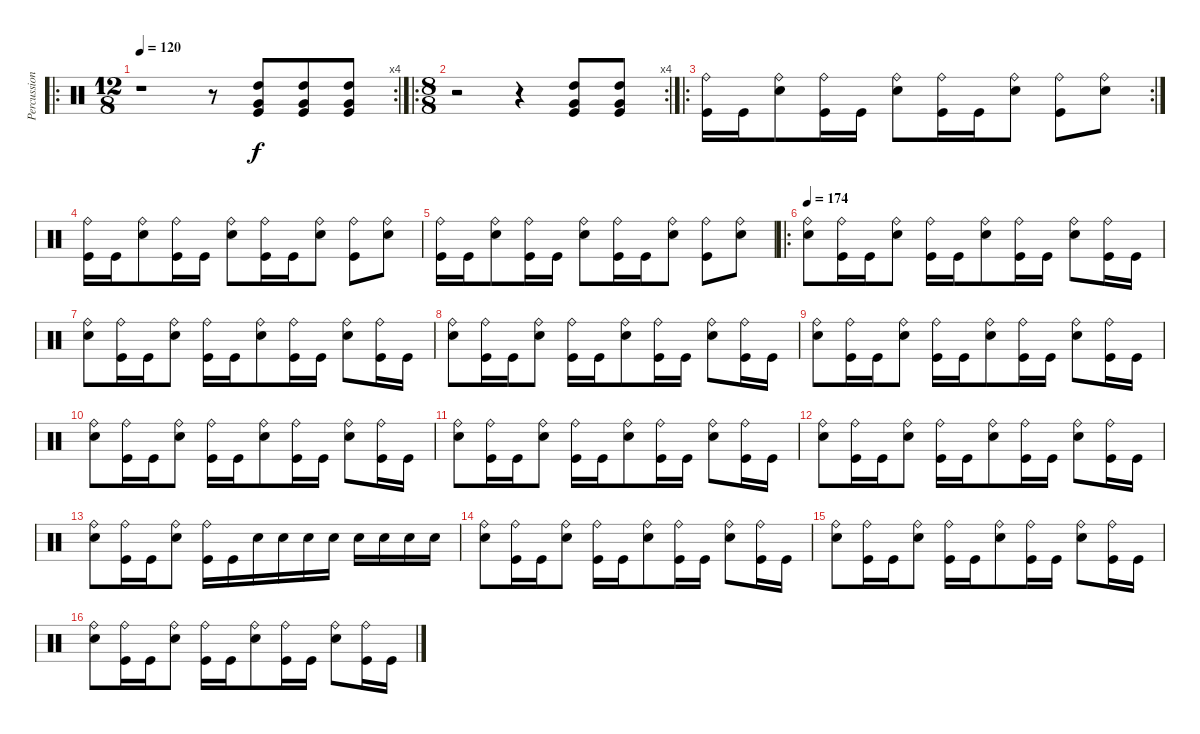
\track ("Percussions" "Percussion") {instrument percussion}
\staff {score}
\articulation defaults
\ro
\rc 4
\ts (12 8)
\tempo 120
\clef neutral
\ks c
r.1{dy f} r.8 ("Kick (hit)" "Very Low Tom (hit)" "High Tom (hit)").8 ("Kick (hit)" "Very Low Tom (hit)" "High Tom (hit)").8 ("Kick (hit)" "Very Low Tom (hit)" "High Tom (hit)").8 |
\ro
\rc 4
\ts (8 8)
r.2 r.4 ("Kick (hit)" "Very Low Tom (hit)" "High Tom (hit)").8 ("Kick (hit)" "Very Low Tom (hit)" "High Tom (hit)").8 |
\ro
\rc 2
("Kick (hit)" "Ride (bell)").16 "Kick (hit)".16 ("Electric Snare (hit)" "Ride (bell)").8 ("Kick (hit)" "Ride (bell)").16 "Kick (hit)".16 ("Electric Snare (hit)" "Ride (bell)").8 ("Kick (hit)" "Ride (bell)").16 "Kick (hit)".16 ("Electric Snare (hit)" "Ride (bell)").8 ("Kick (hit)" "Ride (bell)").8 ("Electric Snare (hit)" "Ride (bell)").8 |
("Kick (hit)" "Ride (bell)").16 "Kick (hit)".16 ("Electric Snare (hit)" "Ride (bell)").8 ("Kick (hit)" "Ride (bell)").16 "Kick (hit)".16 ("Electric Snare (hit)" "Ride (bell)").8 ("Kick (hit)" "Ride (bell)").16 "Kick (hit)".16 ("Electric Snare (hit)" "Ride (bell)").8 ("Kick (hit)" "Ride (bell)").8 ("Electric Snare (hit)" "Ride (bell)").8 |
("Kick (hit)" "Ride (bell)").16 "Kick (hit)".16 ("Electric Snare (hit)" "Ride (bell)").8 ("Kick (hit)" "Ride (bell)").16 "Kick (hit)".16 ("Electric Snare (hit)" "Ride (bell)").8 ("Kick (hit)" "Ride (bell)").16 "Kick (hit)".16 ("Electric Snare (hit)" "Ride (bell)").8 ("Kick (hit)" "Ride (bell)").8 ("Electric Snare (hit)" "Ride (bell)").8 |
\ro
\tempo 174
("Electric Snare (hit)" "Ride (bell)").8 ("Kick (hit)" "Ride (bell)").16 "Kick (hit)".16 ("Electric Snare (hit)" "Ride (bell)").8 ("Kick (hit)" "Ride (bell)").16 "Kick (hit)".16 ("Electric Snare (hit)" "Ride (bell)").8 ("Kick (hit)" "Ride (bell)").16 "Kick (hit)".16 ("Electric Snare (hit)" "Ride (bell)").8 ("Kick (hit)" "Ride (bell)").16 "Kick (hit)".16 |
("Electric Snare (hit)" "Ride (bell)").8 ("Kick (hit)" "Ride (bell)").16 "Kick (hit)".16 ("Electric Snare (hit)" "Ride (bell)").8 ("Kick (hit)" "Ride (bell)").16 "Kick (hit)".16 ("Electric Snare (hit)" "Ride (bell)").8 ("Kick (hit)" "Ride (bell)").16 "Kick (hit)".16 ("Electric Snare (hit)" "Ride (bell)").8 ("Kick (hit)" "Ride (bell)").16 "Kick (hit)".16 |
("Electric Snare (hit)" "Ride (bell)").8 ("Kick (hit)" "Ride (bell)").16 "Kick (hit)".16 ("Electric Snare (hit)" "Ride (bell)").8 ("Kick (hit)" "Ride (bell)").16 "Kick (hit)".16 ("Electric Snare (hit)" "Ride (bell)").8 ("Kick (hit)" "Ride (bell)").16 "Kick (hit)".16 ("Electric Snare (hit)" "Ride (bell)").8 ("Kick (hit)" "Ride (bell)").16 "Kick (hit)".16 |
("Electric Snare (hit)" "Ride (bell)").8 ("Kick (hit)" "Ride (bell)").16 "Kick (hit)".16 ("Electric Snare (hit)" "Ride (bell)").8 ("Kick (hit)" "Ride (bell)").16 "Kick (hit)".16 ("Electric Snare (hit)" "Ride (bell)").8 ("Kick (hit)" "Ride (bell)").16 "Kick (hit)".16 ("Electric Snare (hit)" "Ride (bell)").8 ("Kick (hit)" "Ride (bell)").16 "Kick (hit)".16 |
("Electric Snare (hit)" "Ride (bell)").8 ("Kick (hit)" "Ride (bell)").16 "Kick (hit)".16 ("Electric Snare (hit)" "Ride (bell)").8 ("Kick (hit)" "Ride (bell)").16 "Kick (hit)".16 ("Electric Snare (hit)" "Ride (bell)").8 ("Kick (hit)" "Ride (bell)").16 "Kick (hit)".16 ("Electric Snare (hit)" "Ride (bell)").8 ("Kick (hit)" "Ride (bell)").16 "Kick (hit)".16 |
("Electric Snare (hit)" "Ride (bell)").8 ("Kick (hit)" "Ride (bell)").16 "Kick (hit)".16 ("Electric Snare (hit)" "Ride (bell)").8 ("Kick (hit)" "Ride (bell)").16 "Kick (hit)".16 ("Electric Snare (hit)" "Ride (bell)").8 ("Kick (hit)" "Ride (bell)").16 "Kick (hit)".16 ("Electric Snare (hit)" "Ride (bell)").8 ("Kick (hit)" "Ride (bell)").16 "Kick (hit)".16 |
("Electric Snare (hit)" "Ride (bell)").8 ("Kick (hit)" "Ride (bell)").16 "Kick (hit)".16 ("Electric Snare (hit)" "Ride (bell)").8 ("Kick (hit)" "Ride (bell)").16 "Kick (hit)".16 ("Electric Snare (hit)" "Ride (bell)").8 ("Kick (hit)" "Ride (bell)").16 "Kick (hit)".16 ("Electric Snare (hit)" "Ride (bell)").8 ("Kick (hit)" "Ride (bell)").16 "Kick (hit)".16 |
("Electric Snare (hit)" "Ride (bell)").8 ("Kick (hit)" "Ride (bell)").16 "Kick (hit)".16 ("Electric Snare (hit)" "Ride (bell)").8 ("Kick (hit)" "Ride (bell)").16 "Kick (hit)".16 "Electric Snare (hit)".16 "Electric Snare (hit)".16 "Electric Snare (hit)".16 "Electric Snare (hit)".16 "Electric Snare (hit)".16 "Electric Snare (hit)".16 "Electric Snare (hit)".16 "Electric Snare (hit)".16 |
("Electric Snare (hit)" "Ride (bell)").8 ("Kick (hit)" "Ride (bell)").16 "Kick (hit)".16 ("Electric Snare (hit)" "Ride (bell)").8 ("Kick (hit)" "Ride (bell)").16 "Kick (hit)".16 ("Electric Snare (hit)" "Ride (bell)").8 ("Kick (hit)" "Ride (bell)").16 "Kick (hit)".16 ("Electric Snare (hit)" "Ride (bell)").8 ("Kick (hit)" "Ride (bell)").16 "Kick (hit)".16 |
("Electric Snare (hit)" "Ride (bell)").8 ("Kick (hit)" "Ride (bell)").16 "Kick (hit)".16 ("Electric Snare (hit)" "Ride (bell)").8 ("Kick (hit)" "Ride (bell)").16 "Kick (hit)".16 ("Electric Snare (hit)" "Ride (bell)").8 ("Kick (hit)" "Ride (bell)").16 "Kick (hit)".16 ("Electric Snare (hit)" "Ride (bell)").8 ("Kick (hit)" "Ride (bell)").16 "Kick (hit)".16 |
("Electric Snare (hit)" "Ride (bell)").8 ("Kick (hit)" "Ride (bell)").16 "Kick (hit)".16 ("Electric Snare (hit)" "Ride (bell)").8 ("Kick (hit)" "Ride (bell)").16 "Kick (hit)".16 ("Electric Snare (hit)" "Ride (bell)").8 ("Kick (hit)" "Ride (bell)").16 "Kick (hit)".16 ("Electric Snare (hit)" "Ride (bell)").8 ("Kick (hit)" "Ride (bell)").16 "Kick (hit)".16
